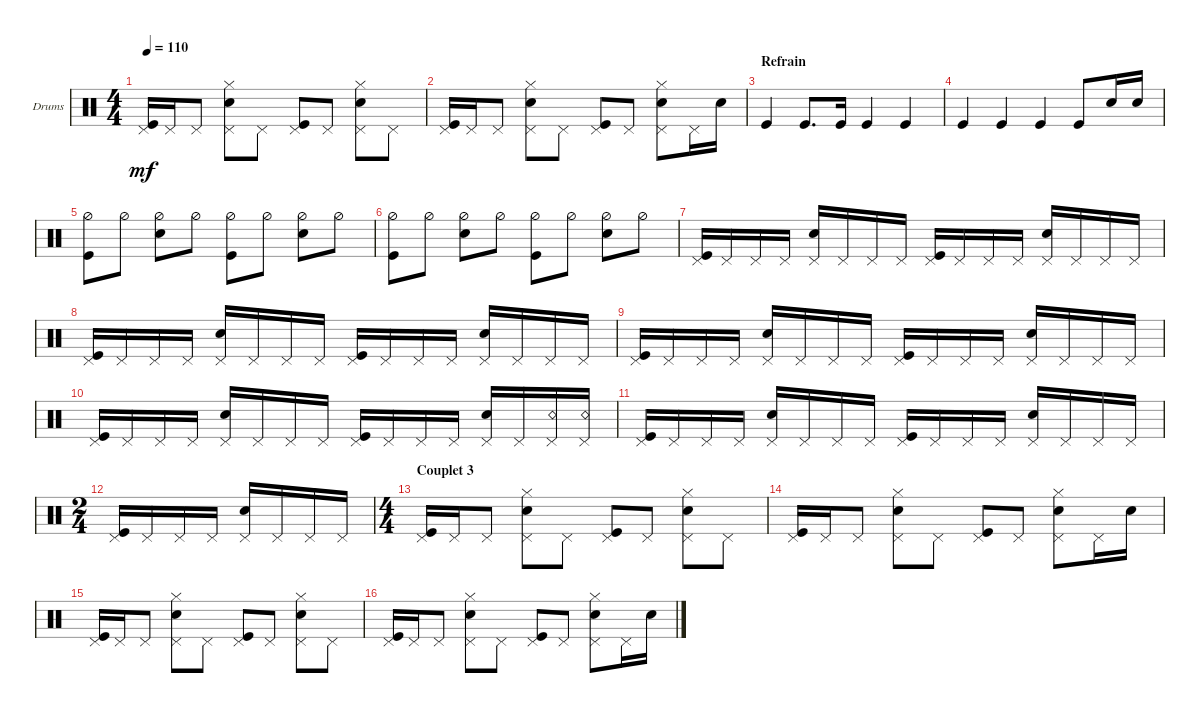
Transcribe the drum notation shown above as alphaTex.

\defaultSystemsLayout 4
\bracketExtendMode groupsimilarinstruments
\firstSystemTrackNameOrientation horizontal
\otherSystemsTrackNameOrientation horizontal
\track ("Drumkit" "Drums") {instrument percussion}
\staff {score}
\articulation defaults
\ts (4 4)
\tempo 110
\clef neutral
\ks c
("Kick (hit)" "Pedal Hi-Hat (hit)").16{dy mf} "Pedal Hi-Hat (hit)".16 "Pedal Hi-Hat (hit)".8 ("Snare (hit) 2" "Hi-Hat (closed)" "Pedal Hi-Hat (hit)").8 "Pedal Hi-Hat (hit)".8 ("Kick (hit)" "Pedal Hi-Hat (hit)").8 "Pedal Hi-Hat (hit)".8 ("Snare (hit) 2" "Hi-Hat (closed)" "Pedal Hi-Hat (hit)").8 "Pedal Hi-Hat (hit)".8 |
("Kick (hit)" "Pedal Hi-Hat (hit)").16 "Pedal Hi-Hat (hit)".16 "Pedal Hi-Hat (hit)".8 ("Snare (hit) 2" "Hi-Hat (closed)" "Pedal Hi-Hat (hit)").8 "Pedal Hi-Hat (hit)".8 ("Kick (hit)" "Pedal Hi-Hat (hit)").8 "Pedal Hi-Hat (hit)".8 ("Snare (hit) 2" "Hi-Hat (closed)" "Pedal Hi-Hat (hit)").8 "Pedal Hi-Hat (hit)".16 "Snare (hit) 2".16 |
\section ("" "Refrain")
"Kick (hit)".4 "Kick (hit)".8{d} "Kick (hit)".16 "Kick (hit)".4 "Kick (hit)".4 |
"Kick (hit)".4 "Kick (hit)".4 "Kick (hit)".4 "Kick (hit)".8 "Snare (hit) 2".16 "Snare (hit) 2".16 |
("Hi-Hat (half)" "Kick (hit)").8 "Hi-Hat (half)".8 ("Hi-Hat (half)" "Snare (hit) 2").8 "Hi-Hat (half)".8 ("Hi-Hat (half)" "Kick (hit)").8 "Hi-Hat (half)".8 ("Hi-Hat (half)" "Snare (hit) 2").8 "Hi-Hat (half)".8 |
("Hi-Hat (half)" "Kick (hit)").8 "Hi-Hat (half)".8 ("Hi-Hat (half)" "Snare (hit) 2").8 "Hi-Hat (half)".8 ("Hi-Hat (half)" "Kick (hit)").8 "Hi-Hat (half)".8 ("Hi-Hat (half)" "Snare (hit) 2").8 "Hi-Hat (half)".8 |
("Pedal Hi-Hat (hit)" "Kick (hit)").16 "Pedal Hi-Hat (hit)".16 "Pedal Hi-Hat (hit)".16 "Pedal Hi-Hat (hit)".16 ("Pedal Hi-Hat (hit)" "Snare (hit) 2").16 "Pedal Hi-Hat (hit)".16 "Pedal Hi-Hat (hit)".16 "Pedal Hi-Hat (hit)".16 ("Pedal Hi-Hat (hit)" "Kick (hit)").16 "Pedal Hi-Hat (hit)".16 "Pedal Hi-Hat (hit)".16 "Pedal Hi-Hat (hit)".16 ("Pedal Hi-Hat (hit)" "Snare (hit) 2").16 "Pedal Hi-Hat (hit)".16 "Pedal Hi-Hat (hit)".16 "Pedal Hi-Hat (hit)".16 |
("Pedal Hi-Hat (hit)" "Kick (hit)").16 "Pedal Hi-Hat (hit)".16 "Pedal Hi-Hat (hit)".16 "Pedal Hi-Hat (hit)".16 ("Pedal Hi-Hat (hit)" "Snare (hit) 2").16 "Pedal Hi-Hat (hit)".16 "Pedal Hi-Hat (hit)".16 "Pedal Hi-Hat (hit)".16 ("Pedal Hi-Hat (hit)" "Kick (hit)").16 "Pedal Hi-Hat (hit)".16 "Pedal Hi-Hat (hit)".16 "Pedal Hi-Hat (hit)".16 ("Pedal Hi-Hat (hit)" "Snare (hit) 2").16 "Pedal Hi-Hat (hit)".16 "Pedal Hi-Hat (hit)".16 "Pedal Hi-Hat (hit)".16 |
("Pedal Hi-Hat (hit)" "Kick (hit)").16 "Pedal Hi-Hat (hit)".16 "Pedal Hi-Hat (hit)".16 "Pedal Hi-Hat (hit)".16 ("Pedal Hi-Hat (hit)" "Snare (hit) 2").16 "Pedal Hi-Hat (hit)".16 "Pedal Hi-Hat (hit)".16 "Pedal Hi-Hat (hit)".16 ("Pedal Hi-Hat (hit)" "Kick (hit)").16 "Pedal Hi-Hat (hit)".16 "Pedal Hi-Hat (hit)".16 "Pedal Hi-Hat (hit)".16 ("Pedal Hi-Hat (hit)" "Snare (hit) 2").16 "Pedal Hi-Hat (hit)".16 "Pedal Hi-Hat (hit)".16 "Pedal Hi-Hat (hit)".16 |
("Pedal Hi-Hat (hit)" "Kick (hit)").16 "Pedal Hi-Hat (hit)".16 "Pedal Hi-Hat (hit)".16 "Pedal Hi-Hat (hit)".16 ("Pedal Hi-Hat (hit)" "Snare (hit) 2").16 "Pedal Hi-Hat (hit)".16 "Pedal Hi-Hat (hit)".16 "Pedal Hi-Hat (hit)".16 ("Pedal Hi-Hat (hit)" "Kick (hit)").16 "Pedal Hi-Hat (hit)".16 "Pedal Hi-Hat (hit)".16 "Pedal Hi-Hat (hit)".16 ("Pedal Hi-Hat (hit)" "Snare (hit) 2").16 "Pedal Hi-Hat (hit)".16 ("Pedal Hi-Hat (hit)" "Snare (rim shot)").16 ("Pedal Hi-Hat (hit)" "Snare (rim shot)").16 |
("Pedal Hi-Hat (hit)" "Kick (hit)").16 "Pedal Hi-Hat (hit)".16 "Pedal Hi-Hat (hit)".16 "Pedal Hi-Hat (hit)".16 ("Pedal Hi-Hat (hit)" "Snare (hit) 2").16 "Pedal Hi-Hat (hit)".16 "Pedal Hi-Hat (hit)".16 "Pedal Hi-Hat (hit)".16 ("Pedal Hi-Hat (hit)" "Kick (hit)").16 "Pedal Hi-Hat (hit)".16 "Pedal Hi-Hat (hit)".16 "Pedal Hi-Hat (hit)".16 ("Pedal Hi-Hat (hit)" "Snare (hit) 2").16 "Pedal Hi-Hat (hit)".16 "Pedal Hi-Hat (hit)".16 "Pedal Hi-Hat (hit)".16 |
\ts (2 4)
("Pedal Hi-Hat (hit)" "Kick (hit)").16 "Pedal Hi-Hat (hit)".16 "Pedal Hi-Hat (hit)".16 "Pedal Hi-Hat (hit)".16 ("Pedal Hi-Hat (hit)" "Snare (hit) 2").16 "Pedal Hi-Hat (hit)".16 "Pedal Hi-Hat (hit)".16 "Pedal Hi-Hat (hit)".16 |
\ts (4 4)
\section ("" "Couplet 3")
("Kick (hit)" "Pedal Hi-Hat (hit)").16 "Pedal Hi-Hat (hit)".16 "Pedal Hi-Hat (hit)".8 ("Snare (hit) 2" "Hi-Hat (closed)" "Pedal Hi-Hat (hit)").8 "Pedal Hi-Hat (hit)".8 ("Kick (hit)" "Pedal Hi-Hat (hit)").8 "Pedal Hi-Hat (hit)".8 ("Snare (hit) 2" "Hi-Hat (closed)" "Pedal Hi-Hat (hit)").8 "Pedal Hi-Hat (hit)".8 |
("Kick (hit)" "Pedal Hi-Hat (hit)").16 "Pedal Hi-Hat (hit)".16 "Pedal Hi-Hat (hit)".8 ("Snare (hit) 2" "Hi-Hat (closed)" "Pedal Hi-Hat (hit)").8 "Pedal Hi-Hat (hit)".8 ("Kick (hit)" "Pedal Hi-Hat (hit)").8 "Pedal Hi-Hat (hit)".8 ("Snare (hit) 2" "Hi-Hat (closed)" "Pedal Hi-Hat (hit)").8 "Pedal Hi-Hat (hit)".16 "Snare (hit) 2".16 |
("Kick (hit)" "Pedal Hi-Hat (hit)").16 "Pedal Hi-Hat (hit)".16 "Pedal Hi-Hat (hit)".8 ("Snare (hit) 2" "Hi-Hat (closed)" "Pedal Hi-Hat (hit)").8 "Pedal Hi-Hat (hit)".8 ("Kick (hit)" "Pedal Hi-Hat (hit)").8 "Pedal Hi-Hat (hit)".8 ("Snare (hit) 2" "Hi-Hat (closed)" "Pedal Hi-Hat (hit)").8 "Pedal Hi-Hat (hit)".8 |
("Kick (hit)" "Pedal Hi-Hat (hit)").16 "Pedal Hi-Hat (hit)".16 "Pedal Hi-Hat (hit)".8 ("Snare (hit) 2" "Hi-Hat (closed)" "Pedal Hi-Hat (hit)").8 "Pedal Hi-Hat (hit)".8 ("Kick (hit)" "Pedal Hi-Hat (hit)").8 "Pedal Hi-Hat (hit)".8 ("Snare (hit) 2" "Hi-Hat (closed)" "Pedal Hi-Hat (hit)").8 "Pedal Hi-Hat (hit)".16 "Snare (hit) 2".16
